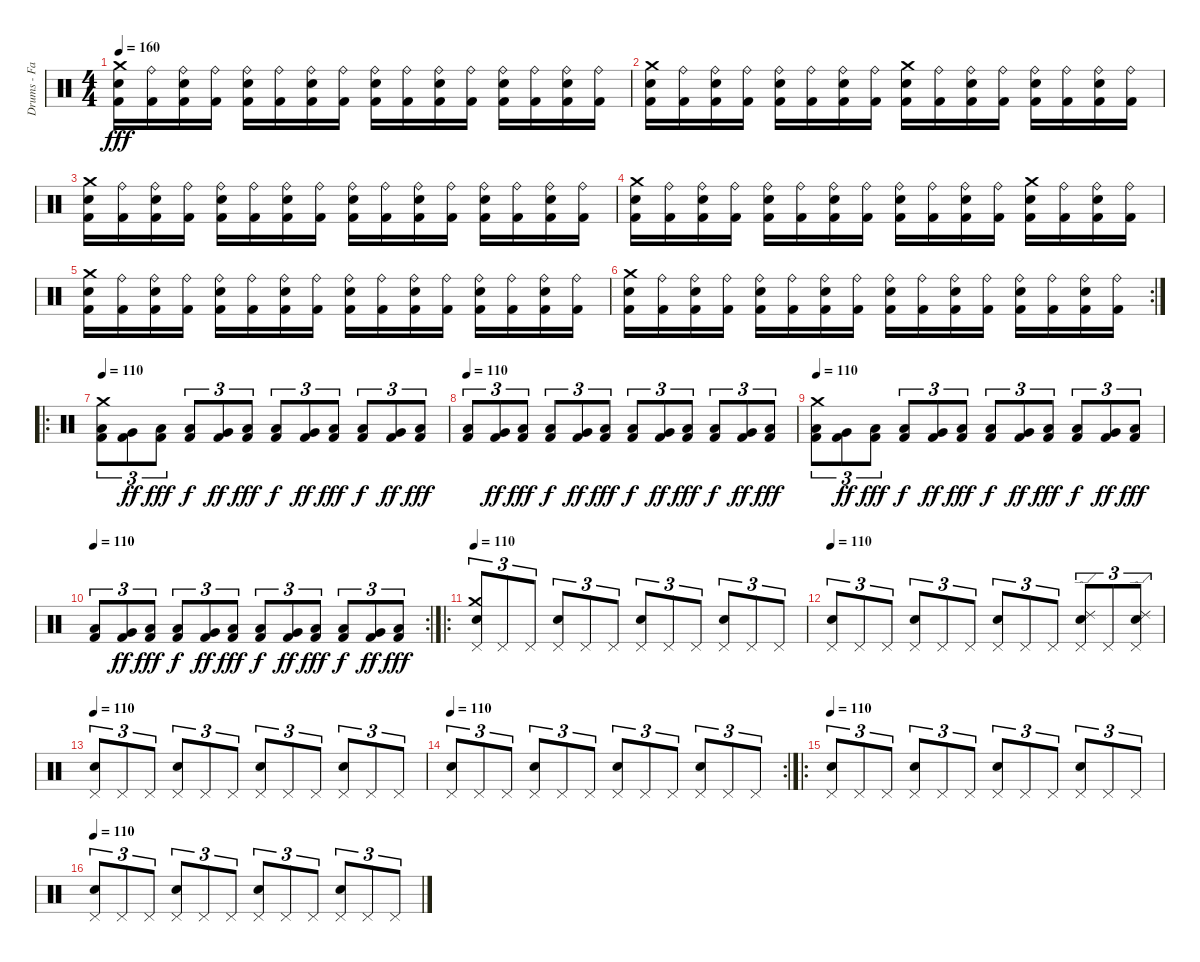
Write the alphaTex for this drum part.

\track ("Drums - Faust" "Drums - Fa") {instrument percussion}
\staff {score}
\articulation defaults
\ts (4 4)
\tempo 160
\clef neutral
\ks c
("Electric Snare (hit)" "Crash medium (hit)" "Kick (hit) 2").16{dy fff} ("Ride (bell)" "Kick (hit) 2").16 ("Ride (bell)" "Electric Snare (hit)" "Kick (hit) 2").16 ("Ride (bell)" "Kick (hit) 2").16 ("Ride (bell)" "Electric Snare (hit)" "Kick (hit) 2").16 ("Ride (bell)" "Kick (hit) 2").16 ("Ride (bell)" "Electric Snare (hit)" "Kick (hit) 2").16 ("Ride (bell)" "Kick (hit) 2").16 ("Ride (bell)" "Electric Snare (hit)" "Kick (hit) 2").16 ("Ride (bell)" "Kick (hit) 2").16 ("Ride (bell)" "Electric Snare (hit)" "Kick (hit) 2").16 ("Ride (bell)" "Kick (hit) 2").16 ("Ride (bell)" "Electric Snare (hit)" "Kick (hit) 2").16 ("Ride (bell)" "Kick (hit) 2").16 ("Ride (bell)" "Electric Snare (hit)" "Kick (hit) 2").16 ("Ride (bell)" "Kick (hit) 2").16 |
("Electric Snare (hit)" "Crash medium (hit)" "Kick (hit) 2").16 ("Ride (bell)" "Kick (hit) 2").16 ("Ride (bell)" "Electric Snare (hit)" "Kick (hit) 2").16 ("Ride (bell)" "Kick (hit) 2").16 ("Ride (bell)" "Electric Snare (hit)" "Kick (hit) 2").16 ("Ride (bell)" "Kick (hit) 2").16 ("Ride (bell)" "Electric Snare (hit)" "Kick (hit) 2").16 ("Ride (bell)" "Kick (hit) 2").16 ("Electric Snare (hit)" "Crash medium (hit)" "Kick (hit) 2").16 ("Ride (bell)" "Kick (hit) 2").16 ("Ride (bell)" "Electric Snare (hit)" "Kick (hit) 2").16 ("Ride (bell)" "Kick (hit) 2").16 ("Ride (bell)" "Electric Snare (hit)" "Kick (hit) 2").16 ("Ride (bell)" "Kick (hit) 2").16 ("Ride (bell)" "Electric Snare (hit)" "Kick (hit) 2").16 ("Ride (bell)" "Kick (hit) 2").16 |
("Electric Snare (hit)" "Crash medium (hit)" "Kick (hit) 2").16 ("Ride (bell)" "Kick (hit) 2").16 ("Ride (bell)" "Electric Snare (hit)" "Kick (hit) 2").16 ("Ride (bell)" "Kick (hit) 2").16 ("Ride (bell)" "Electric Snare (hit)" "Kick (hit) 2").16 ("Ride (bell)" "Kick (hit) 2").16 ("Ride (bell)" "Electric Snare (hit)" "Kick (hit) 2").16 ("Ride (bell)" "Kick (hit) 2").16 ("Ride (bell)" "Electric Snare (hit)" "Kick (hit) 2").16 ("Ride (bell)" "Kick (hit) 2").16 ("Ride (bell)" "Electric Snare (hit)" "Kick (hit) 2").16 ("Ride (bell)" "Kick (hit) 2").16 ("Ride (bell)" "Electric Snare (hit)" "Kick (hit) 2").16 ("Ride (bell)" "Kick (hit) 2").16 ("Ride (bell)" "Electric Snare (hit)" "Kick (hit) 2").16 ("Ride (bell)" "Kick (hit) 2").16 |
("Electric Snare (hit)" "Crash medium (hit)" "Kick (hit) 2").16 ("Ride (bell)" "Kick (hit) 2").16 ("Ride (bell)" "Electric Snare (hit)" "Kick (hit) 2").16 ("Ride (bell)" "Kick (hit) 2").16 ("Ride (bell)" "Electric Snare (hit)" "Kick (hit) 2").16 ("Ride (bell)" "Kick (hit) 2").16 ("Ride (bell)" "Electric Snare (hit)" "Kick (hit) 2").16 ("Ride (bell)" "Kick (hit) 2").16 ("Ride (bell)" "Electric Snare (hit)" "Kick (hit) 2").16 ("Ride (bell)" "Kick (hit) 2").16 ("Ride (bell)" "Electric Snare (hit)" "Kick (hit) 2").16 ("Ride (bell)" "Kick (hit) 2").16 ("Electric Snare (hit)" "Crash medium (hit)" "Kick (hit) 2").16 ("Ride (bell)" "Kick (hit) 2").16 ("Ride (bell)" "Electric Snare (hit)" "Kick (hit) 2").16 ("Ride (bell)" "Kick (hit) 2").16 |
("Electric Snare (hit)" "Crash medium (hit)" "Kick (hit) 2").16 ("Ride (bell)" "Kick (hit) 2").16 ("Ride (bell)" "Electric Snare (hit)" "Kick (hit) 2").16 ("Ride (bell)" "Kick (hit) 2").16 ("Ride (bell)" "Electric Snare (hit)" "Kick (hit) 2").16 ("Ride (bell)" "Kick (hit) 2").16 ("Ride (bell)" "Electric Snare (hit)" "Kick (hit) 2").16 ("Ride (bell)" "Kick (hit) 2").16 ("Ride (bell)" "Electric Snare (hit)" "Kick (hit) 2").16 ("Ride (bell)" "Kick (hit) 2").16 ("Ride (bell)" "Electric Snare (hit)" "Kick (hit) 2").16 ("Ride (bell)" "Kick (hit) 2").16 ("Ride (bell)" "Electric Snare (hit)" "Kick (hit) 2").16 ("Ride (bell)" "Kick (hit) 2").16 ("Ride (bell)" "Electric Snare (hit)" "Kick (hit) 2").16 ("Ride (bell)" "Kick (hit) 2").16 |
\rc 2
("Electric Snare (hit)" "Crash medium (hit)" "Kick (hit) 2").16 ("Ride (bell)" "Kick (hit) 2").16 ("Ride (bell)" "Electric Snare (hit)" "Kick (hit) 2").16 ("Ride (bell)" "Kick (hit) 2").16 ("Ride (bell)" "Electric Snare (hit)" "Kick (hit) 2").16 ("Ride (bell)" "Kick (hit) 2").16 ("Ride (bell)" "Electric Snare (hit)" "Kick (hit) 2").16 ("Ride (bell)" "Kick (hit) 2").16 ("Ride (bell)" "Electric Snare (hit)" "Kick (hit) 2").16 ("Ride (bell)" "Kick (hit) 2").16 ("Ride (bell)" "Electric Snare (hit)" "Kick (hit) 2").16 ("Ride (bell)" "Kick (hit) 2").16 ("Ride (bell)" "Electric Snare (hit)" "Kick (hit) 2").16 ("Ride (bell)" "Kick (hit) 2").16 ("Ride (bell)" "Electric Snare (hit)" "Kick (hit) 2").16 ("Ride (bell)" "Kick (hit) 2").16 |
\ro
\tempo 110
("Crash medium (hit)" "Low Floor Tom (hit)" "Kick (hit) 2").8{tu (3 2)} ("Very Low Tom (hit)" "Kick (hit) 2").8{tu (3 2) dy ff} ("Low Tom (hit)" "Kick (hit) 2").8{tu (3 2) dy fff} ("Low Floor Tom (hit)" "Kick (hit) 2").8{tu (3 2) dy f} ("Very Low Tom (hit)" "Kick (hit) 2").8{tu (3 2) dy ff} ("Low Tom (hit)" "Kick (hit) 2").8{tu (3 2) dy fff} ("Low Floor Tom (hit)" "Kick (hit) 2").8{tu (3 2) dy f} ("Very Low Tom (hit)" "Kick (hit) 2").8{tu (3 2) dy ff} ("Low Tom (hit)" "Kick (hit) 2").8{tu (3 2) dy fff} ("Low Floor Tom (hit)" "Kick (hit) 2").8{tu (3 2) dy f} ("Very Low Tom (hit)" "Kick (hit) 2").8{tu (3 2) dy ff} ("Low Tom (hit)" "Kick (hit) 2").8{tu (3 2) dy fff} |
\tempo 110
("Low Floor Tom (hit)" "Kick (hit) 2").8{tu (3 2)} ("Very Low Tom (hit)" "Kick (hit) 2").8{tu (3 2) dy ff} ("Low Tom (hit)" "Kick (hit) 2").8{tu (3 2) dy fff} ("Low Floor Tom (hit)" "Kick (hit) 2").8{tu (3 2) dy f} ("Very Low Tom (hit)" "Kick (hit) 2").8{tu (3 2) dy ff} ("Low Tom (hit)" "Kick (hit) 2").8{tu (3 2) dy fff} ("Low Floor Tom (hit)" "Kick (hit) 2").8{tu (3 2) dy f} ("Very Low Tom (hit)" "Kick (hit) 2").8{tu (3 2) dy ff} ("Low Tom (hit)" "Kick (hit) 2").8{tu (3 2) dy fff} ("Low Floor Tom (hit)" "Kick (hit) 2").8{tu (3 2) dy f} ("Very Low Tom (hit)" "Kick (hit) 2").8{tu (3 2) dy ff} ("Low Tom (hit)" "Kick (hit) 2").8{tu (3 2) dy fff} |
\tempo 110
("Crash medium (hit)" "Low Floor Tom (hit)" "Kick (hit) 2").8{tu (3 2)} ("Very Low Tom (hit)" "Kick (hit) 2").8{tu (3 2) dy ff} ("Low Tom (hit)" "Kick (hit) 2").8{tu (3 2) dy fff} ("Low Floor Tom (hit)" "Kick (hit) 2").8{tu (3 2) dy f} ("Very Low Tom (hit)" "Kick (hit) 2").8{tu (3 2) dy ff} ("Low Tom (hit)" "Kick (hit) 2").8{tu (3 2) dy fff} ("Low Floor Tom (hit)" "Kick (hit) 2").8{tu (3 2) dy f} ("Very Low Tom (hit)" "Kick (hit) 2").8{tu (3 2) dy ff} ("Low Tom (hit)" "Kick (hit) 2").8{tu (3 2) dy fff} ("Low Floor Tom (hit)" "Kick (hit) 2").8{tu (3 2) dy f} ("Very Low Tom (hit)" "Kick (hit) 2").8{tu (3 2) dy ff} ("Low Tom (hit)" "Kick (hit) 2").8{tu (3 2) dy fff} |
\rc 2
\tempo 110
("Low Floor Tom (hit)" "Kick (hit) 2").8{tu (3 2)} ("Very Low Tom (hit)" "Kick (hit) 2").8{tu (3 2) dy ff} ("Low Tom (hit)" "Kick (hit) 2").8{tu (3 2) dy fff} ("Low Floor Tom (hit)" "Kick (hit) 2").8{tu (3 2) dy f} ("Very Low Tom (hit)" "Kick (hit) 2").8{tu (3 2) dy ff} ("Low Tom (hit)" "Kick (hit) 2").8{tu (3 2) dy fff} ("Low Floor Tom (hit)" "Kick (hit) 2").8{tu (3 2) dy f} ("Very Low Tom (hit)" "Kick (hit) 2").8{tu (3 2) dy ff} ("Low Tom (hit)" "Kick (hit) 2").8{tu (3 2) dy fff} ("Low Floor Tom (hit)" "Kick (hit) 2").8{tu (3 2) dy f} ("Very Low Tom (hit)" "Kick (hit) 2").8{tu (3 2) dy ff} ("Low Tom (hit)" "Kick (hit) 2").8{tu (3 2) dy fff} |
\ro
\tempo 110
("Crash medium (hit)" "Pedal Hi-Hat (hit)" "Electric Snare (hit)").8{tu (3 2)} "Pedal Hi-Hat (hit)".8{tu (3 2)} "Pedal Hi-Hat (hit)".8{tu (3 2)} ("Pedal Hi-Hat (hit)" "Electric Snare (hit)").8{tu (3 2)} "Pedal Hi-Hat (hit)".8{tu (3 2)} "Pedal Hi-Hat (hit)".8{tu (3 2)} ("Pedal Hi-Hat (hit)" "Electric Snare (hit)").8{tu (3 2)} "Pedal Hi-Hat (hit)".8{tu (3 2)} "Pedal Hi-Hat (hit)".8{tu (3 2)} ("Pedal Hi-Hat (hit)" "Electric Snare (hit)").8{tu (3 2)} "Pedal Hi-Hat (hit)".8{tu (3 2)} "Pedal Hi-Hat (hit)".8{tu (3 2)} |
\tempo 110
("Pedal Hi-Hat (hit)" "Electric Snare (hit)").8{tu (3 2)} "Pedal Hi-Hat (hit)".8{tu (3 2)} "Pedal Hi-Hat (hit)".8{tu (3 2)} ("Pedal Hi-Hat (hit)" "Electric Snare (hit)").8{tu (3 2)} "Pedal Hi-Hat (hit)".8{tu (3 2)} "Pedal Hi-Hat (hit)".8{tu (3 2)} ("Pedal Hi-Hat (hit)" "Electric Snare (hit)").8{tu (3 2)} "Pedal Hi-Hat (hit)".8{tu (3 2)} "Pedal Hi-Hat (hit)".8{tu (3 2)} ("Ride (edge) 2" "Pedal Hi-Hat (hit)" "Electric Snare (hit)").8{tu (3 2)} "Pedal Hi-Hat (hit)".8{tu (3 2)} ("Ride (edge) 2" "Pedal Hi-Hat (hit)" "Electric Snare (hit)").8{tu (3 2)} |
\tempo 110
("Pedal Hi-Hat (hit)" "Electric Snare (hit)").8{tu (3 2)} "Pedal Hi-Hat (hit)".8{tu (3 2)} "Pedal Hi-Hat (hit)".8{tu (3 2)} ("Pedal Hi-Hat (hit)" "Electric Snare (hit)").8{tu (3 2)} "Pedal Hi-Hat (hit)".8{tu (3 2)} "Pedal Hi-Hat (hit)".8{tu (3 2)} ("Pedal Hi-Hat (hit)" "Electric Snare (hit)").8{tu (3 2)} "Pedal Hi-Hat (hit)".8{tu (3 2)} "Pedal Hi-Hat (hit)".8{tu (3 2)} ("Pedal Hi-Hat (hit)" "Electric Snare (hit)").8{tu (3 2)} "Pedal Hi-Hat (hit)".8{tu (3 2)} "Pedal Hi-Hat (hit)".8{tu (3 2)} |
\rc 2
\tempo 110
("Pedal Hi-Hat (hit)" "Electric Snare (hit)").8{tu (3 2)} "Pedal Hi-Hat (hit)".8{tu (3 2)} "Pedal Hi-Hat (hit)".8{tu (3 2)} ("Pedal Hi-Hat (hit)" "Electric Snare (hit)").8{tu (3 2)} "Pedal Hi-Hat (hit)".8{tu (3 2)} "Pedal Hi-Hat (hit)".8{tu (3 2)} ("Pedal Hi-Hat (hit)" "Electric Snare (hit)").8{tu (3 2)} "Pedal Hi-Hat (hit)".8{tu (3 2)} "Pedal Hi-Hat (hit)".8{tu (3 2)} ("Pedal Hi-Hat (hit)" "Electric Snare (hit)").8{tu (3 2)} "Pedal Hi-Hat (hit)".8{tu (3 2)} "Pedal Hi-Hat (hit)".8{tu (3 2)} |
\ro
\tempo 110
("Pedal Hi-Hat (hit)" "Electric Snare (hit)").8{tu (3 2)} "Pedal Hi-Hat (hit)".8{tu (3 2)} "Pedal Hi-Hat (hit)".8{tu (3 2)} ("Pedal Hi-Hat (hit)" "Electric Snare (hit)").8{tu (3 2)} "Pedal Hi-Hat (hit)".8{tu (3 2)} "Pedal Hi-Hat (hit)".8{tu (3 2)} ("Pedal Hi-Hat (hit)" "Electric Snare (hit)").8{tu (3 2)} "Pedal Hi-Hat (hit)".8{tu (3 2)} "Pedal Hi-Hat (hit)".8{tu (3 2)} ("Pedal Hi-Hat (hit)" "Electric Snare (hit)").8{tu (3 2)} "Pedal Hi-Hat (hit)".8{tu (3 2)} "Pedal Hi-Hat (hit)".8{tu (3 2)} |
\tempo 110
("Pedal Hi-Hat (hit)" "Electric Snare (hit)").8{tu (3 2)} "Pedal Hi-Hat (hit)".8{tu (3 2)} "Pedal Hi-Hat (hit)".8{tu (3 2)} ("Pedal Hi-Hat (hit)" "Electric Snare (hit)").8{tu (3 2)} "Pedal Hi-Hat (hit)".8{tu (3 2)} "Pedal Hi-Hat (hit)".8{tu (3 2)} ("Pedal Hi-Hat (hit)" "Electric Snare (hit)").8{tu (3 2)} "Pedal Hi-Hat (hit)".8{tu (3 2)} "Pedal Hi-Hat (hit)".8{tu (3 2)} ("Pedal Hi-Hat (hit)" "Electric Snare (hit)").8{tu (3 2)} "Pedal Hi-Hat (hit)".8{tu (3 2)} "Pedal Hi-Hat (hit)".8{tu (3 2)}
